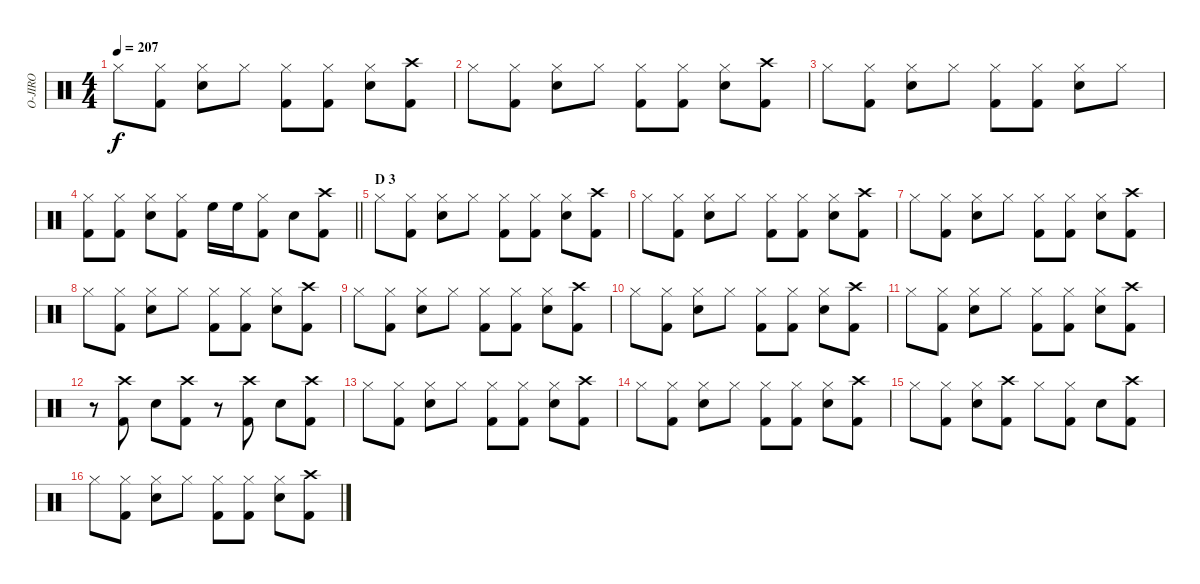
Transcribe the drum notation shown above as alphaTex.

\track ("O-JIRO" "O-JIRO") {instrument percussion}
\staff {score}
\articulation defaults
\ts (4 4)
\tempo 207
\clef neutral
\ks c "Hi-Hat (closed)".8{dy f}
("Hi-Hat (closed)" "Kick (hit) 2").8 ("Hi-Hat (closed)" "Snare (hit) 2").8 "Hi-Hat (closed)".8 ("Hi-Hat (closed)" "Kick (hit) 2").8 ("Hi-Hat (closed)" "Kick (hit) 2").8 ("Hi-Hat (closed)" "Snare (hit) 2").8 ("Crash high (hit)" "Kick (hit) 2").8 |
"Hi-Hat (closed)".8 ("Hi-Hat (closed)" "Kick (hit) 2").8 ("Hi-Hat (closed)" "Snare (hit) 2").8 "Hi-Hat (closed)".8 ("Hi-Hat (closed)" "Kick (hit) 2").8 ("Hi-Hat (closed)" "Kick (hit) 2").8 ("Hi-Hat (closed)" "Snare (hit) 2").8 ("Crash high (hit)" "Kick (hit) 2").8 |
"Hi-Hat (closed)".8 ("Hi-Hat (closed)" "Kick (hit) 2").8 ("Hi-Hat (closed)" "Snare (hit) 2").8 "Hi-Hat (closed)".8 ("Hi-Hat (closed)" "Kick (hit) 2").8 ("Hi-Hat (closed)" "Kick (hit) 2").8 ("Hi-Hat (closed)" "Snare (hit) 2").8 "Hi-Hat (closed)".8 |
\barLineRight lightlight
("Hi-Hat (closed)" "Kick (hit) 2").8 ("Hi-Hat (closed)" "Kick (hit) 2").8 ("Hi-Hat (closed)" "Snare (hit) 2").8 ("Hi-Hat (closed)" "Kick (hit) 2").8 "High Floor Tom (hit)".16 "High Floor Tom (hit)".16 ("Hi-Hat (closed)" "Kick (hit) 2").8 "Snare (hit) 2".8 ("Crash high (hit)" "Kick (hit) 2").8 |
\section ("" "D 3")
"Hi-Hat (closed)".8 ("Hi-Hat (closed)" "Kick (hit) 2").8 ("Hi-Hat (closed)" "Snare (hit) 2").8 "Hi-Hat (closed)".8 ("Hi-Hat (closed)" "Kick (hit) 2").8 ("Hi-Hat (closed)" "Kick (hit) 2").8 ("Hi-Hat (closed)" "Snare (hit) 2").8 ("Crash high (hit)" "Kick (hit) 2").8 |
"Hi-Hat (closed)".8 ("Hi-Hat (closed)" "Kick (hit) 2").8 ("Hi-Hat (closed)" "Snare (hit) 2").8 "Hi-Hat (closed)".8 ("Hi-Hat (closed)" "Kick (hit) 2").8 ("Hi-Hat (closed)" "Kick (hit) 2").8 ("Hi-Hat (closed)" "Snare (hit) 2").8 ("Crash high (hit)" "Kick (hit) 2").8 |
"Hi-Hat (closed)".8 ("Hi-Hat (closed)" "Kick (hit) 2").8 ("Hi-Hat (closed)" "Snare (hit) 2").8 "Hi-Hat (closed)".8 ("Hi-Hat (closed)" "Kick (hit) 2").8 ("Hi-Hat (closed)" "Kick (hit) 2").8 ("Hi-Hat (closed)" "Snare (hit) 2").8 ("Crash high (hit)" "Kick (hit) 2").8 |
"Hi-Hat (closed)".8 ("Hi-Hat (closed)" "Kick (hit) 2").8 ("Hi-Hat (closed)" "Snare (hit) 2").8 "Hi-Hat (closed)".8 ("Hi-Hat (closed)" "Kick (hit) 2").8 ("Hi-Hat (closed)" "Kick (hit) 2").8 ("Hi-Hat (closed)" "Snare (hit) 2").8 ("Crash high (hit)" "Kick (hit) 2").8 |
"Hi-Hat (closed)".8 ("Hi-Hat (closed)" "Kick (hit) 2").8 ("Hi-Hat (closed)" "Snare (hit) 2").8 "Hi-Hat (closed)".8 ("Hi-Hat (closed)" "Kick (hit) 2").8 ("Hi-Hat (closed)" "Kick (hit) 2").8 ("Hi-Hat (closed)" "Snare (hit) 2").8 ("Crash high (hit)" "Kick (hit) 2").8 |
"Hi-Hat (closed)".8 ("Hi-Hat (closed)" "Kick (hit) 2").8 ("Hi-Hat (closed)" "Snare (hit) 2").8 "Hi-Hat (closed)".8 ("Hi-Hat (closed)" "Kick (hit) 2").8 ("Hi-Hat (closed)" "Kick (hit) 2").8 ("Hi-Hat (closed)" "Snare (hit) 2").8 ("Crash high (hit)" "Kick (hit) 2").8 |
"Hi-Hat (closed)".8 ("Hi-Hat (closed)" "Kick (hit) 2").8 ("Hi-Hat (closed)" "Snare (hit) 2").8 "Hi-Hat (closed)".8 ("Hi-Hat (closed)" "Kick (hit) 2").8 ("Hi-Hat (closed)" "Kick (hit) 2").8 ("Hi-Hat (closed)" "Snare (hit) 2").8 ("Crash high (hit)" "Kick (hit) 2").8 |
r.8 ("Crash high (hit)" "Kick (hit) 2").8 "Snare (hit) 2".8 ("Crash high (hit)" "Kick (hit) 2").8 r.8 ("Crash high (hit)" "Kick (hit) 2").8 "Snare (hit) 2".8 ("Crash high (hit)" "Kick (hit) 2").8 |
"Hi-Hat (closed)".8 ("Hi-Hat (closed)" "Kick (hit) 2").8 ("Hi-Hat (closed)" "Snare (hit) 2").8 "Hi-Hat (closed)".8 ("Hi-Hat (closed)" "Kick (hit) 2").8 ("Hi-Hat (closed)" "Kick (hit) 2").8 ("Hi-Hat (closed)" "Snare (hit) 2").8 ("Crash high (hit)" "Kick (hit) 2").8 |
"Hi-Hat (closed)".8 ("Hi-Hat (closed)" "Kick (hit) 2").8 ("Hi-Hat (closed)" "Snare (hit) 2").8 "Hi-Hat (closed)".8 ("Hi-Hat (closed)" "Kick (hit) 2").8 ("Hi-Hat (closed)" "Kick (hit) 2").8 ("Hi-Hat (closed)" "Snare (hit) 2").8 ("Crash high (hit)" "Kick (hit) 2").8 |
"Hi-Hat (closed)".8 ("Hi-Hat (closed)" "Kick (hit) 2").8 ("Hi-Hat (closed)" "Snare (hit) 2").8 ("Crash high (hit)" "Kick (hit) 2").8 "Hi-Hat (closed)".8 ("Hi-Hat (closed)" "Kick (hit) 2").8 "Snare (hit) 2".8 ("Crash high (hit)" "Kick (hit) 2").8 |
"Hi-Hat (closed)".8 ("Hi-Hat (closed)" "Kick (hit) 2").8 ("Hi-Hat (closed)" "Snare (hit) 2").8 "Hi-Hat (closed)".8 ("Hi-Hat (closed)" "Kick (hit) 2").8 ("Hi-Hat (closed)" "Kick (hit) 2").8 ("Hi-Hat (closed)" "Snare (hit) 2").8 ("Crash high (hit)" "Kick (hit) 2").8
